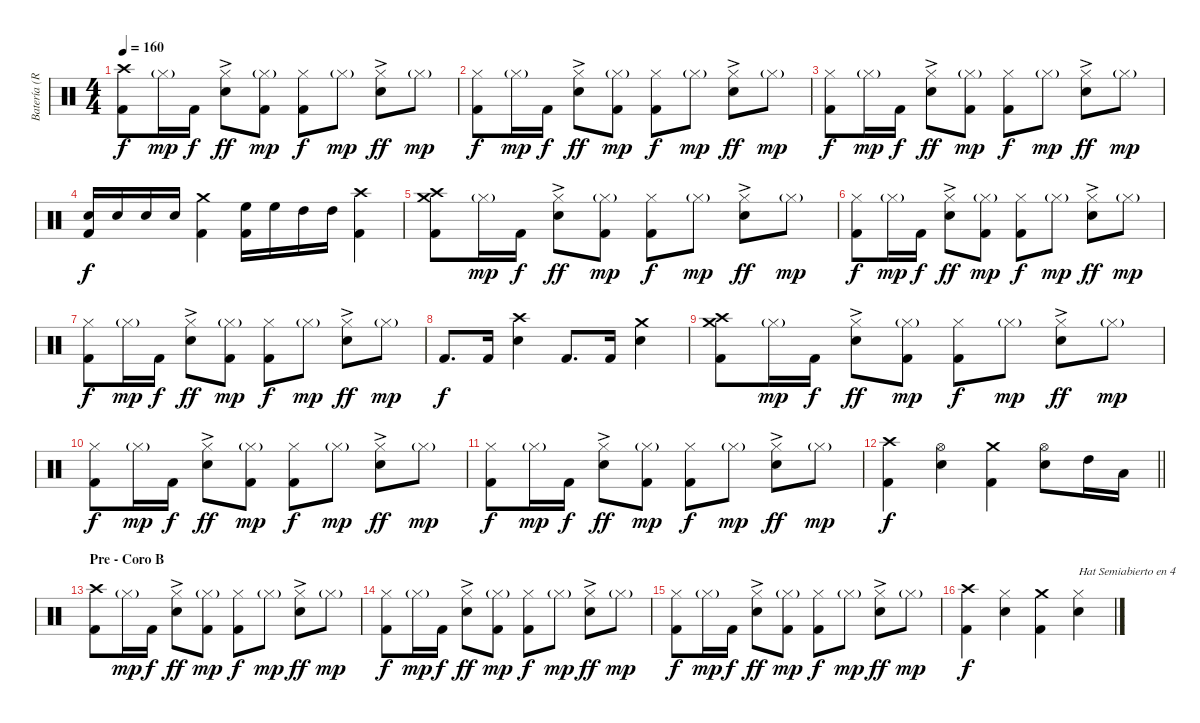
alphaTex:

\track ("Batería (Robert)" "Batería (R") {instrument percussion}
\staff {score}
\articulation defaults
\ts (4 4)
\tempo 160
\clef neutral
\ks c
("Crash high (hit)" "Kick (hit) 2").8{dy f} "Hi-Hat (closed)"{g}.16{dy mp} "Kick (hit) 2".16{dy f} ("Hi-Hat (closed)"{ac} "Electric Snare (hit)").8{dy ff} ("Hi-Hat (closed)"{g} "Kick (hit) 2").8{dy mp} ("Hi-Hat (closed)" "Kick (hit) 2").8{dy f} "Hi-Hat (closed)"{g}.8{dy mp} ("Hi-Hat (closed)"{ac} "Electric Snare (hit)").8{dy ff} "Hi-Hat (closed)"{g}.8{dy mp} |
("Hi-Hat (closed)" "Kick (hit) 2").8{dy f} "Hi-Hat (closed)"{g}.16{dy mp} "Kick (hit) 2".16{dy f} ("Hi-Hat (closed)"{ac} "Electric Snare (hit)").8{dy ff} ("Hi-Hat (closed)"{g} "Kick (hit) 2").8{dy mp} ("Hi-Hat (closed)" "Kick (hit) 2").8{dy f} "Hi-Hat (closed)"{g}.8{dy mp} ("Hi-Hat (closed)"{ac} "Electric Snare (hit)").8{dy ff} "Hi-Hat (closed)"{g}.8{dy mp} |
("Hi-Hat (closed)" "Kick (hit) 2").8{dy f} "Hi-Hat (closed)"{g}.16{dy mp} "Kick (hit) 2".16{dy f} ("Hi-Hat (closed)"{ac} "Electric Snare (hit)").8{dy ff} ("Hi-Hat (closed)"{g} "Kick (hit) 2").8{dy mp} ("Hi-Hat (closed)" "Kick (hit) 2").8{dy f} "Hi-Hat (closed)"{g}.8{dy mp} ("Hi-Hat (closed)"{ac} "Electric Snare (hit)").8{dy ff} "Hi-Hat (closed)"{g}.8{dy mp} |
("Electric Snare (hit)" "Kick (hit) 2").16{dy f} "Electric Snare (hit)".16 "Electric Snare (hit)".16 "Electric Snare (hit)".16 ("Kick (hit) 2" "Crash medium (hit)").4 ("High Floor Tom (hit)" "Kick (hit) 2").16 "High Floor Tom (hit)".16 "High Tom (hit)".16 "High Tom (hit)".16 ("Kick (hit) 2" "Crash high (hit)").4 |
("Crash high (hit)" "Kick (hit) 2" "Crash medium (hit)").8 "Hi-Hat (closed)"{g}.16{dy mp} "Kick (hit) 2".16{dy f} ("Hi-Hat (closed)"{ac} "Electric Snare (hit)").8{dy ff} ("Hi-Hat (closed)"{g} "Kick (hit) 2").8{dy mp} ("Hi-Hat (closed)" "Kick (hit) 2").8{dy f} "Hi-Hat (closed)"{g}.8{dy mp} ("Hi-Hat (closed)"{ac} "Electric Snare (hit)").8{dy ff} "Hi-Hat (closed)"{g}.8{dy mp} |
("Hi-Hat (closed)" "Kick (hit) 2").8{dy f} "Hi-Hat (closed)"{g}.16{dy mp} "Kick (hit) 2".16{dy f} ("Hi-Hat (closed)"{ac} "Electric Snare (hit)").8{dy ff} ("Hi-Hat (closed)"{g} "Kick (hit) 2").8{dy mp} ("Hi-Hat (closed)" "Kick (hit) 2").8{dy f} "Hi-Hat (closed)"{g}.8{dy mp} ("Hi-Hat (closed)"{ac} "Electric Snare (hit)").8{dy ff} "Hi-Hat (closed)"{g}.8{dy mp} |
("Hi-Hat (closed)" "Kick (hit) 2").8{dy f} "Hi-Hat (closed)"{g}.16{dy mp} "Kick (hit) 2".16{dy f} ("Hi-Hat (closed)"{ac} "Electric Snare (hit)").8{dy ff} ("Hi-Hat (closed)"{g} "Kick (hit) 2").8{dy mp} ("Hi-Hat (closed)" "Kick (hit) 2").8{dy f} "Hi-Hat (closed)"{g}.8{dy mp} ("Hi-Hat (closed)"{ac} "Electric Snare (hit)").8{dy ff} "Hi-Hat (closed)"{g}.8{dy mp} |
"Kick (hit) 2".8{d dy f} "Kick (hit) 2".16 ("Electric Snare (hit)" "Crash high (hit)").4 "Kick (hit) 2".8{d} "Kick (hit) 2".16 ("Electric Snare (hit)" "Crash medium (hit)").4 |
("Crash high (hit)" "Kick (hit) 2" "Crash medium (hit)").8 "Hi-Hat (closed)"{g}.16{dy mp} "Kick (hit) 2".16{dy f} ("Hi-Hat (closed)"{ac} "Electric Snare (hit)").8{dy ff} ("Hi-Hat (closed)"{g} "Kick (hit) 2").8{dy mp} ("Hi-Hat (closed)" "Kick (hit) 2").8{dy f} "Hi-Hat (closed)"{g}.8{dy mp} ("Hi-Hat (closed)"{ac} "Electric Snare (hit)").8{dy ff} "Hi-Hat (closed)"{g}.8{dy mp} |
("Hi-Hat (closed)" "Kick (hit) 2").8{dy f} "Hi-Hat (closed)"{g}.16{dy mp} "Kick (hit) 2".16{dy f} ("Hi-Hat (closed)"{ac} "Electric Snare (hit)").8{dy ff} ("Hi-Hat (closed)"{g} "Kick (hit) 2").8{dy mp} ("Hi-Hat (closed)" "Kick (hit) 2").8{dy f} "Hi-Hat (closed)"{g}.8{dy mp} ("Hi-Hat (closed)"{ac} "Electric Snare (hit)").8{dy ff} "Hi-Hat (closed)"{g}.8{dy mp} |
("Hi-Hat (closed)" "Kick (hit) 2").8{dy f} "Hi-Hat (closed)"{g}.16{dy mp} "Kick (hit) 2".16{dy f} ("Hi-Hat (closed)"{ac} "Electric Snare (hit)").8{dy ff} ("Hi-Hat (closed)"{g} "Kick (hit) 2").8{dy mp} ("Hi-Hat (closed)" "Kick (hit) 2").8{dy f} "Hi-Hat (closed)"{g}.8{dy mp} ("Hi-Hat (closed)"{ac} "Electric Snare (hit)").8{dy ff} "Hi-Hat (closed)"{g}.8{dy mp} |
\barLineRight lightlight
("Kick (hit) 2" "Crash high (hit)").4{dy f} ("Hi-Hat (open)" "Electric Snare (hit)").4 ("Kick (hit) 2" "Crash medium (hit)").4 ("Hi-Hat (open)" "Electric Snare (hit)").8 "High Tom (hit)".16 "Low Floor Tom (hit)".16 |
\section ("" "Pre - Coro B")
("Crash high (hit)" "Kick (hit) 2").8 "Hi-Hat (closed)"{g}.16{dy mp} "Kick (hit) 2".16{dy f} ("Hi-Hat (closed)"{ac} "Electric Snare (hit)").8{dy ff} ("Hi-Hat (closed)"{g} "Kick (hit) 2").8{dy mp} ("Hi-Hat (closed)" "Kick (hit) 2").8{dy f} "Hi-Hat (closed)"{g}.8{dy mp} ("Hi-Hat (closed)"{ac} "Electric Snare (hit)").8{dy ff} "Hi-Hat (closed)"{g}.8{dy mp} |
("Hi-Hat (closed)" "Kick (hit) 2").8{dy f} "Hi-Hat (closed)"{g}.16{dy mp} "Kick (hit) 2".16{dy f} ("Hi-Hat (closed)"{ac} "Electric Snare (hit)").8{dy ff} ("Hi-Hat (closed)"{g} "Kick (hit) 2").8{dy mp} ("Hi-Hat (closed)" "Kick (hit) 2").8{dy f} "Hi-Hat (closed)"{g}.8{dy mp} ("Hi-Hat (closed)"{ac} "Electric Snare (hit)").8{dy ff} "Hi-Hat (closed)"{g}.8{dy mp} |
("Hi-Hat (closed)" "Kick (hit) 2").8{dy f} "Hi-Hat (closed)"{g}.16{dy mp} "Kick (hit) 2".16{dy f} ("Hi-Hat (closed)"{ac} "Electric Snare (hit)").8{dy ff} ("Hi-Hat (closed)"{g} "Kick (hit) 2").8{dy mp} ("Hi-Hat (closed)" "Kick (hit) 2").8{dy f} "Hi-Hat (closed)"{g}.8{dy mp} ("Hi-Hat (closed)"{ac} "Electric Snare (hit)").8{dy ff} "Hi-Hat (closed)"{g}.8{dy mp} |
("Crash high (hit)" "Kick (hit) 2").4{dy f} ("Hi-Hat (closed)" "Electric Snare (hit)").4 ("Crash medium (hit)" "Kick (hit) 2").4 ("Hi-Hat (closed)" "Electric Snare (hit)").4{txt "Hat Semiabierto en 4"}
